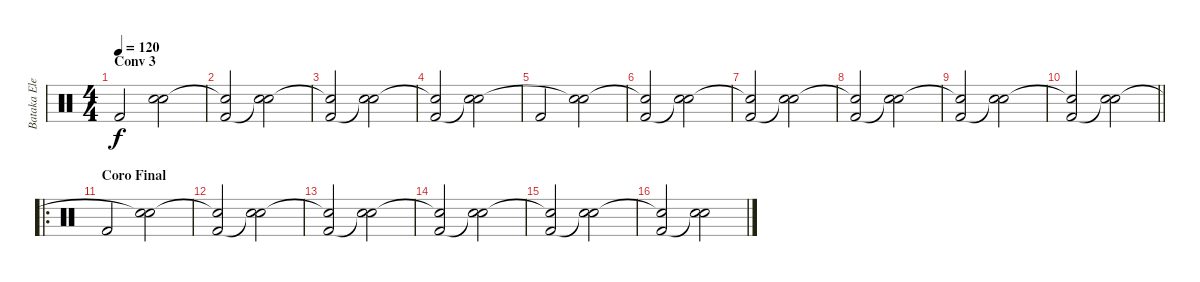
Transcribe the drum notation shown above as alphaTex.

\track ("Bataka Electrica" "Bataka Ele") {instrument percussion}
\staff {score}
\articulation defaults
\ts (4 4)
\section ("" "Conv 3")
\tempo 120
\clef neutral
\ks c "Kick (hit) 2".2{dy f}
("Snare (hit) 2" "Snare (hit)"{t}).2 |
("Snare (hit)"{t} "Kick (hit) 2").2 ("Snare (hit) 2" "Snare (hit)"{t}).2 |
("Snare (hit)"{t} "Kick (hit) 2").2 ("Snare (hit) 2" "Snare (hit)"{t}).2 |
("Snare (hit)"{t} "Kick (hit) 2").2 ("Snare (hit) 2" "Snare (hit)"{t}).2 |
"Kick (hit) 2".2 ("Snare (hit) 2" "Snare (hit)"{t}).2 |
("Snare (hit)"{t} "Kick (hit) 2").2 ("Snare (hit) 2" "Snare (hit)"{t}).2 |
("Snare (hit)"{t} "Kick (hit) 2").2 ("Snare (hit) 2" "Snare (hit)"{t}).2 |
("Snare (hit)"{t} "Kick (hit) 2").2 ("Snare (hit) 2" "Snare (hit)"{t}).2 |
("Snare (hit)"{t} "Kick (hit) 2").2 ("Snare (hit) 2" "Snare (hit)"{t}).2 |
\barLineRight lightlight
("Snare (hit)"{t} "Kick (hit) 2").2 ("Snare (hit) 2" "Snare (hit)"{t}).2 |
\ro
\section ("" "Coro Final")
"Kick (hit) 2".2 ("Snare (hit) 2" "Snare (hit)"{t}).2 |
("Snare (hit)"{t} "Kick (hit) 2").2 ("Snare (hit) 2" "Snare (hit)"{t}).2 |
("Snare (hit)"{t} "Kick (hit) 2").2 ("Snare (hit) 2" "Snare (hit)"{t}).2 |
("Snare (hit)"{t} "Kick (hit) 2").2 ("Snare (hit) 2" "Snare (hit)"{t}).2 |
("Snare (hit)"{t} "Kick (hit) 2").2 ("Snare (hit) 2" "Snare (hit)"{t}).2 |
("Snare (hit)"{t} "Kick (hit) 2").2 ("Snare (hit) 2" "Snare (hit)"{t}).2
